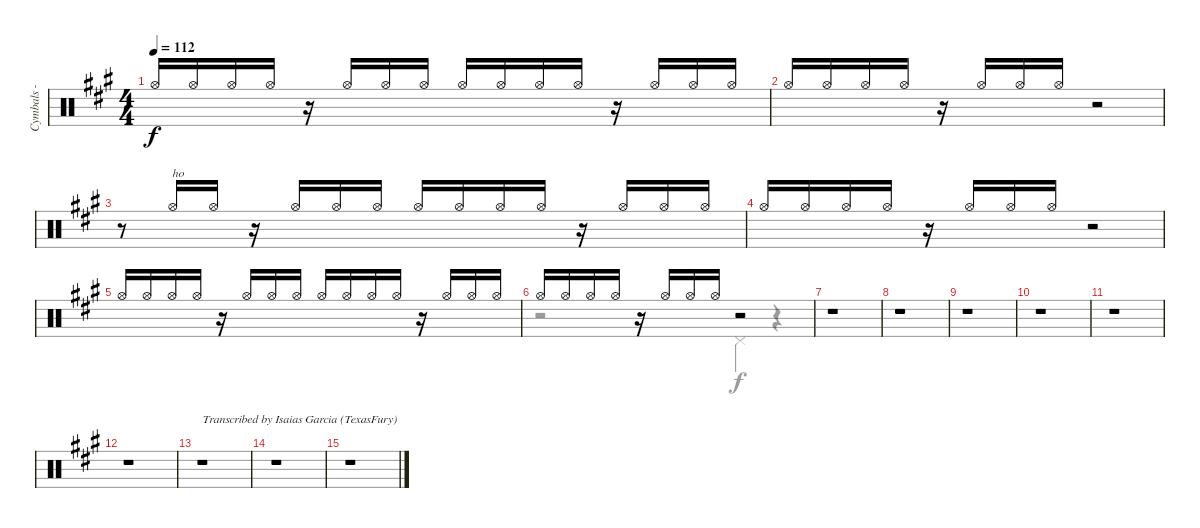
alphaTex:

\track ("Cymbals - hi-hat" "Cymbals - ") {instrument percussion}
\staff {score}
\articulation defaults
\voice
\ts (4 4)
\tempo 112
\clef neutral
\ks f#minor "Hi-Hat (open)".16{dy f beam Up} "Hi-Hat (open)".16{beam Up} "Hi-Hat (open)".16{beam Up} "Hi-Hat (open)".16{beam Up}
r.16 "Hi-Hat (open)".16{beam Up} "Hi-Hat (open)".16{beam Up} "Hi-Hat (open)".16{beam Up} "Hi-Hat (open)".16{beam Up} "Hi-Hat (open)".16{beam Up} "Hi-Hat (open)".16{beam Up} "Hi-Hat (open)".16{beam Up} r.16 "Hi-Hat (open)".16{beam Up} "Hi-Hat (open)".16{beam Up} "Hi-Hat (open)".16{beam Up} |
"Hi-Hat (open)".16{beam Up} "Hi-Hat (open)".16{beam Up} "Hi-Hat (open)".16{beam Up} "Hi-Hat (open)".16{beam Up} r.16 "Hi-Hat (open)".16{beam Up} "Hi-Hat (open)".16{beam Up} "Hi-Hat (open)".16{beam Up} r.2 |
r.8 "Hi-Hat (open)".16{txt "ho" beam Up} "Hi-Hat (open)".16{beam Up} r.16 "Hi-Hat (open)".16{beam Up} "Hi-Hat (open)".16{beam Up} "Hi-Hat (open)".16{beam Up} "Hi-Hat (open)".16{beam Up} "Hi-Hat (open)".16{beam Up} "Hi-Hat (open)".16{beam Up} "Hi-Hat (open)".16{beam Up} r.16 "Hi-Hat (open)".16{beam Up} "Hi-Hat (open)".16{beam Up} "Hi-Hat (open)".16{beam Up} |
"Hi-Hat (open)".16{beam Up} "Hi-Hat (open)".16{beam Up} "Hi-Hat (open)".16{beam Up} "Hi-Hat (open)".16{beam Up} r.16 "Hi-Hat (open)".16{beam Up} "Hi-Hat (open)".16{beam Up} "Hi-Hat (open)".16{beam Up} r.2 |
"Hi-Hat (open)".16{beam Up} "Hi-Hat (open)".16{beam Up} "Hi-Hat (open)".16{beam Up} "Hi-Hat (open)".16{beam Up} r.16 "Hi-Hat (open)".16{beam Up} "Hi-Hat (open)".16{beam Up} "Hi-Hat (open)".16{beam Up} "Hi-Hat (open)".16{beam Up} "Hi-Hat (open)".16{beam Up} "Hi-Hat (open)".16{beam Up} "Hi-Hat (open)".16{beam Up} r.16 "Hi-Hat (open)".16{beam Up} "Hi-Hat (open)".16{beam Up} "Hi-Hat (open)".16{beam Up} |
"Hi-Hat (open)".16{beam Up} "Hi-Hat (open)".16{beam Up} "Hi-Hat (open)".16{beam Up} "Hi-Hat (open)".16{beam Up} r.16 "Hi-Hat (open)".16{beam Up} "Hi-Hat (open)".16{beam Up} "Hi-Hat (open)".16{beam Up} r.2 |
r.1 |
r.1 |
r.1 |
r.1 |
r.1 |
r.1 |
r.1{txt "Transcribed by Isaias Garcia (TexasFury)"} |
r.1 |
r.1
\voice
\clef neutral
\ottava regular
\simile none
\ks f#minor
|
|
|
|
|
r.2 "Pedal Hi-Hat (hit)".4 r.4 |
|
|
|
|
|
|
|
|
